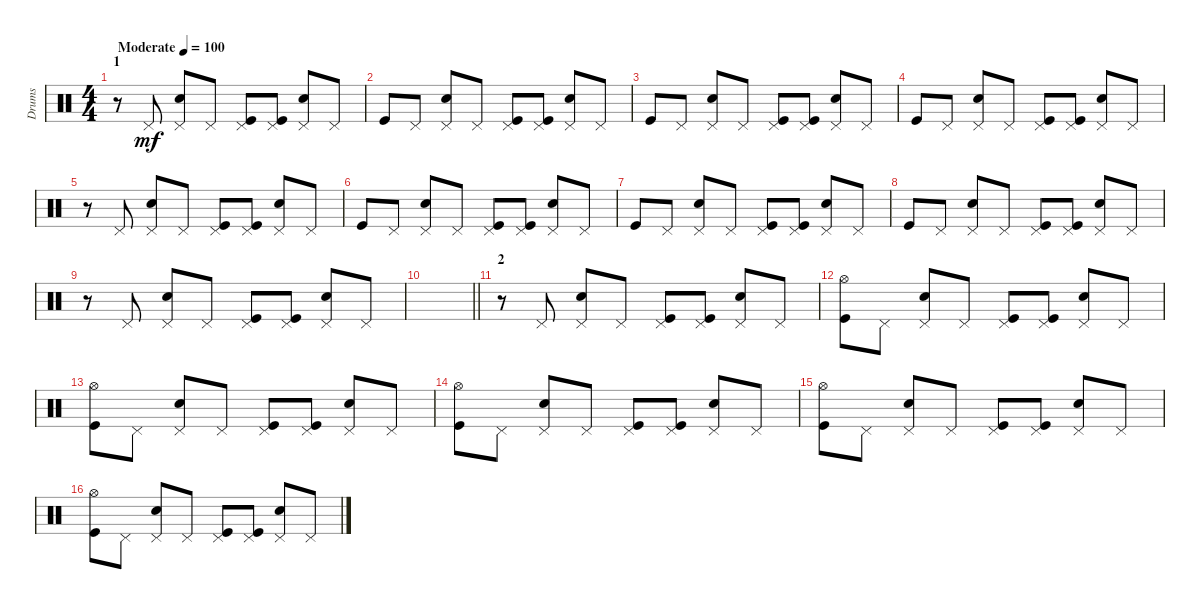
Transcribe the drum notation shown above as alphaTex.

\track ("Drums" "Drums") {instrument percussion}
\staff {score}
\articulation defaults
\ts (4 4)
\section ("" "1")
\tempo (100 "Moderate")
\clef neutral
\ks c
r.8{dy mf} "Pedal Hi-Hat (hit)".8 ("Electric Snare (hit)" "Pedal Hi-Hat (hit)").8 "Pedal Hi-Hat (hit)".8 ("Kick (hit)" "Pedal Hi-Hat (hit)").8 ("Kick (hit)" "Pedal Hi-Hat (hit)").8 ("Electric Snare (hit)" "Pedal Hi-Hat (hit)").8 "Pedal Hi-Hat (hit)".8 |
"Kick (hit)".8 "Pedal Hi-Hat (hit)".8 ("Electric Snare (hit)" "Pedal Hi-Hat (hit)").8 "Pedal Hi-Hat (hit)".8 ("Kick (hit)" "Pedal Hi-Hat (hit)").8 ("Kick (hit)" "Pedal Hi-Hat (hit)").8 ("Electric Snare (hit)" "Pedal Hi-Hat (hit)").8 "Pedal Hi-Hat (hit)".8 |
"Kick (hit)".8 "Pedal Hi-Hat (hit)".8 ("Electric Snare (hit)" "Pedal Hi-Hat (hit)").8 "Pedal Hi-Hat (hit)".8 ("Kick (hit)" "Pedal Hi-Hat (hit)").8 ("Kick (hit)" "Pedal Hi-Hat (hit)").8 ("Electric Snare (hit)" "Pedal Hi-Hat (hit)").8 "Pedal Hi-Hat (hit)".8 |
"Kick (hit)".8 "Pedal Hi-Hat (hit)".8 ("Electric Snare (hit)" "Pedal Hi-Hat (hit)").8 "Pedal Hi-Hat (hit)".8 ("Kick (hit)" "Pedal Hi-Hat (hit)").8 ("Kick (hit)" "Pedal Hi-Hat (hit)").8 ("Electric Snare (hit)" "Pedal Hi-Hat (hit)").8 "Pedal Hi-Hat (hit)".8 |
r.8 "Pedal Hi-Hat (hit)".8 ("Electric Snare (hit)" "Pedal Hi-Hat (hit)").8 "Pedal Hi-Hat (hit)".8 ("Kick (hit)" "Pedal Hi-Hat (hit)").8 ("Kick (hit)" "Pedal Hi-Hat (hit)").8 ("Electric Snare (hit)" "Pedal Hi-Hat (hit)").8 "Pedal Hi-Hat (hit)".8 |
"Kick (hit)".8 "Pedal Hi-Hat (hit)".8 ("Electric Snare (hit)" "Pedal Hi-Hat (hit)").8 "Pedal Hi-Hat (hit)".8 ("Kick (hit)" "Pedal Hi-Hat (hit)").8 ("Kick (hit)" "Pedal Hi-Hat (hit)").8 ("Electric Snare (hit)" "Pedal Hi-Hat (hit)").8 "Pedal Hi-Hat (hit)".8 |
"Kick (hit)".8 "Pedal Hi-Hat (hit)".8 ("Electric Snare (hit)" "Pedal Hi-Hat (hit)").8 "Pedal Hi-Hat (hit)".8 ("Kick (hit)" "Pedal Hi-Hat (hit)").8 ("Kick (hit)" "Pedal Hi-Hat (hit)").8 ("Electric Snare (hit)" "Pedal Hi-Hat (hit)").8 "Pedal Hi-Hat (hit)".8 |
"Kick (hit)".8 "Pedal Hi-Hat (hit)".8 ("Electric Snare (hit)" "Pedal Hi-Hat (hit)").8 "Pedal Hi-Hat (hit)".8 ("Kick (hit)" "Pedal Hi-Hat (hit)").8 ("Kick (hit)" "Pedal Hi-Hat (hit)").8 ("Electric Snare (hit)" "Pedal Hi-Hat (hit)").8 "Pedal Hi-Hat (hit)".8 |
r.8 "Pedal Hi-Hat (hit)".8 ("Electric Snare (hit)" "Pedal Hi-Hat (hit)").8 "Pedal Hi-Hat (hit)".8 ("Kick (hit)" "Pedal Hi-Hat (hit)").8 ("Kick (hit)" "Pedal Hi-Hat (hit)").8 ("Electric Snare (hit)" "Pedal Hi-Hat (hit)").8 "Pedal Hi-Hat (hit)".8 |
\barLineRight lightlight
|
\section ("" "2")
r.8 "Pedal Hi-Hat (hit)".8 ("Electric Snare (hit)" "Pedal Hi-Hat (hit)").8 "Pedal Hi-Hat (hit)".8 ("Kick (hit)" "Pedal Hi-Hat (hit)").8 ("Kick (hit)" "Pedal Hi-Hat (hit)").8 ("Electric Snare (hit)" "Pedal Hi-Hat (hit)").8 "Pedal Hi-Hat (hit)".8 |
("Kick (hit)" "Hi-Hat (open)").8 "Pedal Hi-Hat (hit)".8 ("Electric Snare (hit)" "Pedal Hi-Hat (hit)").8 "Pedal Hi-Hat (hit)".8 ("Kick (hit)" "Pedal Hi-Hat (hit)").8 ("Kick (hit)" "Pedal Hi-Hat (hit)").8 ("Electric Snare (hit)" "Pedal Hi-Hat (hit)").8 "Pedal Hi-Hat (hit)".8 |
("Kick (hit)" "Hi-Hat (open)").8 "Pedal Hi-Hat (hit)".8 ("Electric Snare (hit)" "Pedal Hi-Hat (hit)").8 "Pedal Hi-Hat (hit)".8 ("Kick (hit)" "Pedal Hi-Hat (hit)").8 ("Kick (hit)" "Pedal Hi-Hat (hit)").8 ("Electric Snare (hit)" "Pedal Hi-Hat (hit)").8 "Pedal Hi-Hat (hit)".8 |
("Kick (hit)" "Hi-Hat (open)").8 "Pedal Hi-Hat (hit)".8 ("Electric Snare (hit)" "Pedal Hi-Hat (hit)").8 "Pedal Hi-Hat (hit)".8 ("Kick (hit)" "Pedal Hi-Hat (hit)").8 ("Kick (hit)" "Pedal Hi-Hat (hit)").8 ("Electric Snare (hit)" "Pedal Hi-Hat (hit)").8 "Pedal Hi-Hat (hit)".8 |
("Kick (hit)" "Hi-Hat (open)").8 "Pedal Hi-Hat (hit)".8 ("Electric Snare (hit)" "Pedal Hi-Hat (hit)").8 "Pedal Hi-Hat (hit)".8 ("Kick (hit)" "Pedal Hi-Hat (hit)").8 ("Kick (hit)" "Pedal Hi-Hat (hit)").8 ("Electric Snare (hit)" "Pedal Hi-Hat (hit)").8 "Pedal Hi-Hat (hit)".8 |
("Kick (hit)" "Hi-Hat (open)").8 "Pedal Hi-Hat (hit)".8 ("Electric Snare (hit)" "Pedal Hi-Hat (hit)").8 "Pedal Hi-Hat (hit)".8 ("Kick (hit)" "Pedal Hi-Hat (hit)").8 ("Kick (hit)" "Pedal Hi-Hat (hit)").8 ("Electric Snare (hit)" "Pedal Hi-Hat (hit)").8 "Pedal Hi-Hat (hit)".8
